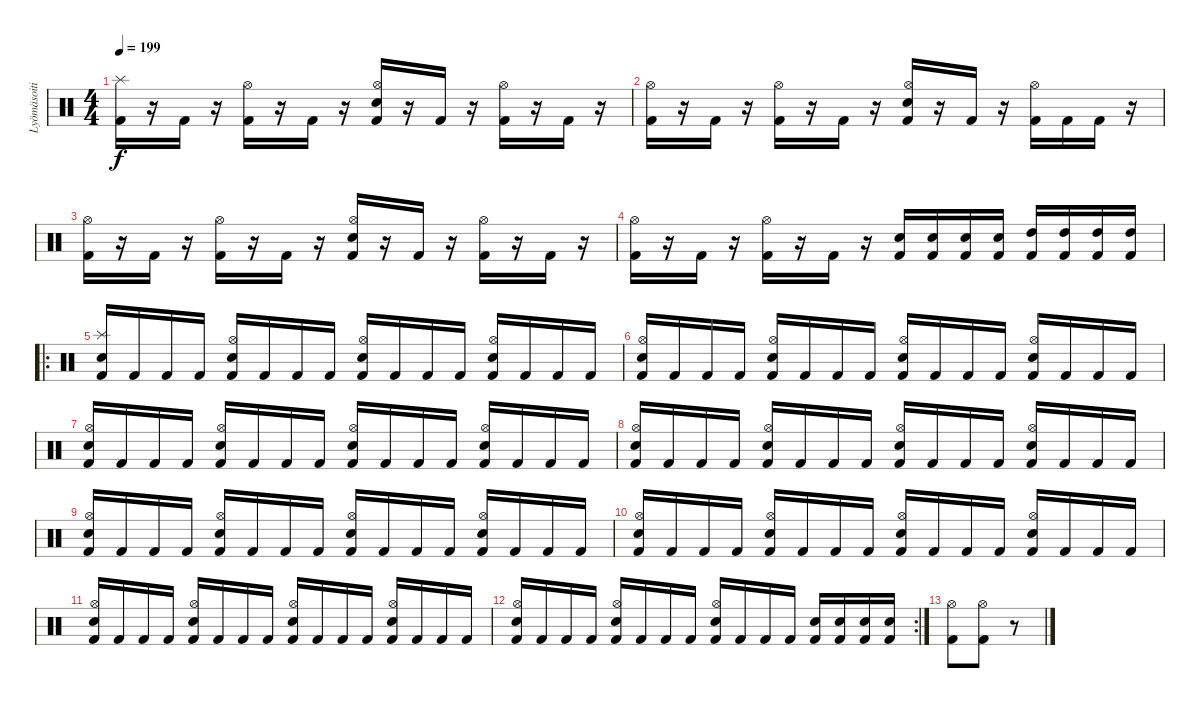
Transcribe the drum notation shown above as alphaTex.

\track ("Lyömäsoitin" "Lyömäsoiti") {instrument percussion}
\staff {score}
\articulation defaults
\ts (4 4)
\tempo 199
\clef neutral
\ks c
("Kick (hit) 2" "Splash (hit)").16{dy f} r.16 "Kick (hit) 2".16 r.16 ("Kick (hit) 2" "Hi-Hat (open)").16 r.16 "Kick (hit) 2".16 r.16 ("Kick (hit) 2" "Hi-Hat (open)" "Snare (hit) 2").16 r.16 "Kick (hit) 2".16 r.16 ("Kick (hit) 2" "Hi-Hat (open)").16 r.16 "Kick (hit) 2".16 r.16 |
("Kick (hit) 2" "Hi-Hat (open)").16 r.16 "Kick (hit) 2".16 r.16 ("Kick (hit) 2" "Hi-Hat (open)").16 r.16 "Kick (hit) 2".16 r.16 ("Kick (hit) 2" "Hi-Hat (open)" "Snare (hit) 2").16 r.16 "Kick (hit) 2".16 r.16 ("Kick (hit) 2" "Hi-Hat (open)").16 "Kick (hit) 2".16 "Kick (hit) 2".16 r.16 |
("Kick (hit) 2" "Hi-Hat (open)").16 r.16 "Kick (hit) 2".16 r.16 ("Kick (hit) 2" "Hi-Hat (open)").16 r.16 "Kick (hit) 2".16 r.16 ("Kick (hit) 2" "Hi-Hat (open)" "Snare (hit) 2").16 r.16 "Kick (hit) 2".16 r.16 ("Kick (hit) 2" "Hi-Hat (open)").16 r.16 "Kick (hit) 2".16 r.16 |
("Kick (hit) 2" "Hi-Hat (open)").16 r.16 "Kick (hit) 2".16 r.16 ("Kick (hit) 2" "Hi-Hat (open)").16 r.16 "Kick (hit) 2".16 r.16 ("Kick (hit) 2" "Snare (hit) 2").16 ("Kick (hit) 2" "Snare (hit) 2").16 ("Kick (hit) 2" "Snare (hit) 2").16 ("Kick (hit) 2" "Snare (hit) 2").16 ("Kick (hit) 2" "High Tom (hit)").16 ("Kick (hit) 2" "High Tom (hit)").16 ("Kick (hit) 2" "High Tom (hit)").16 ("Kick (hit) 2" "High Tom (hit)").16 |
\ro
("Kick (hit) 2" "Splash (hit)" "Snare (hit) 2").16 "Kick (hit) 2".16 "Kick (hit) 2".16 "Kick (hit) 2".16 ("Kick (hit) 2" "Hi-Hat (open)" "Snare (hit) 2").16 "Kick (hit) 2".16 "Kick (hit) 2".16 "Kick (hit) 2".16 ("Kick (hit) 2" "Hi-Hat (open)" "Snare (hit) 2").16 "Kick (hit) 2".16 "Kick (hit) 2".16 "Kick (hit) 2".16 ("Kick (hit) 2" "Hi-Hat (open)" "Snare (hit) 2").16 "Kick (hit) 2".16 "Kick (hit) 2".16 "Kick (hit) 2".16 |
("Kick (hit) 2" "Hi-Hat (open)" "Snare (hit) 2").16 "Kick (hit) 2".16 "Kick (hit) 2".16 "Kick (hit) 2".16 ("Kick (hit) 2" "Hi-Hat (open)" "Snare (hit) 2").16 "Kick (hit) 2".16 "Kick (hit) 2".16 "Kick (hit) 2".16 ("Kick (hit) 2" "Hi-Hat (open)" "Snare (hit) 2").16 "Kick (hit) 2".16 "Kick (hit) 2".16 "Kick (hit) 2".16 ("Kick (hit) 2" "Hi-Hat (open)" "Snare (hit) 2").16 "Kick (hit) 2".16 "Kick (hit) 2".16 "Kick (hit) 2".16 |
("Kick (hit) 2" "Hi-Hat (open)" "Snare (hit) 2").16 "Kick (hit) 2".16 "Kick (hit) 2".16 "Kick (hit) 2".16 ("Kick (hit) 2" "Hi-Hat (open)" "Snare (hit) 2").16 "Kick (hit) 2".16 "Kick (hit) 2".16 "Kick (hit) 2".16 ("Kick (hit) 2" "Hi-Hat (open)" "Snare (hit) 2").16 "Kick (hit) 2".16 "Kick (hit) 2".16 "Kick (hit) 2".16 ("Kick (hit) 2" "Hi-Hat (open)" "Snare (hit) 2").16 "Kick (hit) 2".16 "Kick (hit) 2".16 "Kick (hit) 2".16 |
("Kick (hit) 2" "Hi-Hat (open)" "Snare (hit) 2").16 "Kick (hit) 2".16 "Kick (hit) 2".16 "Kick (hit) 2".16 ("Kick (hit) 2" "Hi-Hat (open)" "Snare (hit) 2").16 "Kick (hit) 2".16 "Kick (hit) 2".16 "Kick (hit) 2".16 ("Kick (hit) 2" "Hi-Hat (open)" "Snare (hit) 2").16 "Kick (hit) 2".16 "Kick (hit) 2".16 "Kick (hit) 2".16 ("Kick (hit) 2" "Hi-Hat (open)" "Snare (hit) 2").16 "Kick (hit) 2".16 "Kick (hit) 2".16 "Kick (hit) 2".16 |
("Kick (hit) 2" "Hi-Hat (open)" "Snare (hit) 2").16 "Kick (hit) 2".16 "Kick (hit) 2".16 "Kick (hit) 2".16 ("Kick (hit) 2" "Hi-Hat (open)" "Snare (hit) 2").16 "Kick (hit) 2".16 "Kick (hit) 2".16 "Kick (hit) 2".16 ("Kick (hit) 2" "Hi-Hat (open)" "Snare (hit) 2").16 "Kick (hit) 2".16 "Kick (hit) 2".16 "Kick (hit) 2".16 ("Kick (hit) 2" "Hi-Hat (open)" "Snare (hit) 2").16 "Kick (hit) 2".16 "Kick (hit) 2".16 "Kick (hit) 2".16 |
("Kick (hit) 2" "Hi-Hat (open)" "Snare (hit) 2").16 "Kick (hit) 2".16 "Kick (hit) 2".16 "Kick (hit) 2".16 ("Kick (hit) 2" "Hi-Hat (open)" "Snare (hit) 2").16 "Kick (hit) 2".16 "Kick (hit) 2".16 "Kick (hit) 2".16 ("Kick (hit) 2" "Hi-Hat (open)" "Snare (hit) 2").16 "Kick (hit) 2".16 "Kick (hit) 2".16 "Kick (hit) 2".16 ("Kick (hit) 2" "Hi-Hat (open)" "Snare (hit) 2").16 "Kick (hit) 2".16 "Kick (hit) 2".16 "Kick (hit) 2".16 |
("Kick (hit) 2" "Hi-Hat (open)" "Snare (hit) 2").16 "Kick (hit) 2".16 "Kick (hit) 2".16 "Kick (hit) 2".16 ("Kick (hit) 2" "Hi-Hat (open)" "Snare (hit) 2").16 "Kick (hit) 2".16 "Kick (hit) 2".16 "Kick (hit) 2".16 ("Kick (hit) 2" "Hi-Hat (open)" "Snare (hit) 2").16 "Kick (hit) 2".16 "Kick (hit) 2".16 "Kick (hit) 2".16 ("Kick (hit) 2" "Hi-Hat (open)" "Snare (hit) 2").16 "Kick (hit) 2".16 "Kick (hit) 2".16 "Kick (hit) 2".16 |
\rc 2
("Kick (hit) 2" "Hi-Hat (open)" "Snare (hit) 2").16 "Kick (hit) 2".16 "Kick (hit) 2".16 "Kick (hit) 2".16 ("Kick (hit) 2" "Hi-Hat (open)" "Snare (hit) 2").16 "Kick (hit) 2".16 "Kick (hit) 2".16 "Kick (hit) 2".16 ("Kick (hit) 2" "Hi-Hat (open)" "Snare (hit) 2").16 "Kick (hit) 2".16 "Kick (hit) 2".16 "Kick (hit) 2".16 ("Kick (hit) 2" "Snare (hit) 2").16 ("Kick (hit) 2" "Snare (hit) 2").16 ("Kick (hit) 2" "Snare (hit) 2").16 ("Kick (hit) 2" "Snare (hit) 2").16 |
("Kick (hit) 2" "Hi-Hat (open)").8 ("Kick (hit) 2" "Hi-Hat (open)").8 r.8
